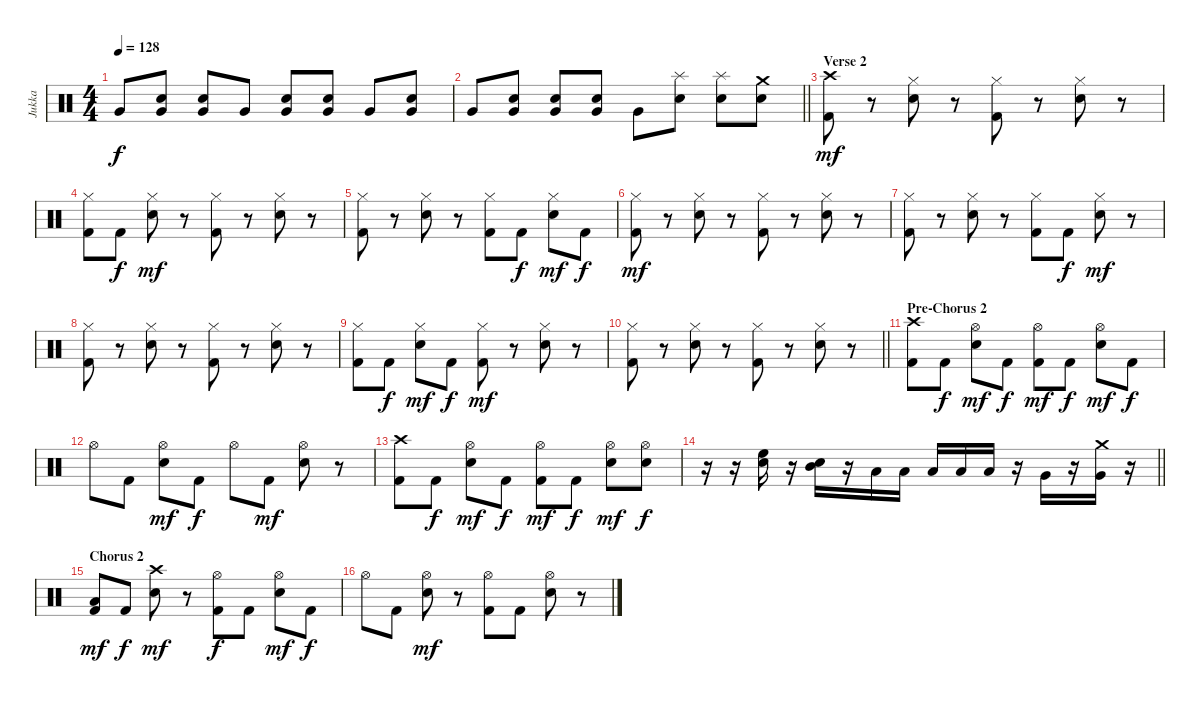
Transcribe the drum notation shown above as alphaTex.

\track ("Jukka" "Jukka") {instrument percussion}
\staff {score}
\articulation defaults
\ts (4 4)
\tempo 128
\clef neutral
\ks c "Very Low Tom (hit)".8{dy f}
("Electric Snare (hit)" "Very Low Tom (hit)").8 ("Electric Snare (hit)" "Very Low Tom (hit)").8 "Very Low Tom (hit)".8 ("Electric Snare (hit)" "Very Low Tom (hit)").8 ("Electric Snare (hit)" "Very Low Tom (hit)").8 "Very Low Tom (hit)".8 ("Electric Snare (hit)" "Very Low Tom (hit)").8 |
\barLineRight lightlight "Very Low Tom (hit)".8
("Electric Snare (hit)" "Very Low Tom (hit)").8 ("Electric Snare (hit)" "Very Low Tom (hit)").8 ("Electric Snare (hit)" "Very Low Tom (hit)").8 "Very Low Tom (hit)".8 ("Electric Snare (hit)" "Splash (hit)").8 ("Electric Snare (hit)" "Splash (hit)").8 ("Electric Snare (hit)" "Crash medium (hit)").8 |
\section ("" "Verse 2")
("Kick (hit) 2" "Crash high (hit)").8{dy mf} r.8 ("Electric Snare (hit)" "Hi-Hat (closed)").8 r.8 ("Kick (hit) 2" "Hi-Hat (closed)").8 r.8 ("Electric Snare (hit)" "Hi-Hat (closed)").8 r.8 |
("Kick (hit) 2" "Hi-Hat (closed)").8 "Kick (hit) 2".8{dy f} ("Electric Snare (hit)" "Hi-Hat (closed)").8{dy mf} r.8 ("Kick (hit) 2" "Hi-Hat (closed)").8 r.8 ("Electric Snare (hit)" "Hi-Hat (closed)").8 r.8 |
("Kick (hit) 2" "Hi-Hat (closed)").8 r.8 ("Electric Snare (hit)" "Hi-Hat (closed)").8 r.8 ("Kick (hit) 2" "Hi-Hat (closed)").8 "Kick (hit) 2".8{dy f} ("Electric Snare (hit)" "Hi-Hat (closed)").8{dy mf} "Kick (hit) 2".8{dy f} |
("Kick (hit) 2" "Hi-Hat (closed)").8{dy mf} r.8 ("Electric Snare (hit)" "Hi-Hat (closed)").8 r.8 ("Kick (hit) 2" "Hi-Hat (closed)").8 r.8 ("Electric Snare (hit)" "Hi-Hat (closed)").8 r.8 |
("Kick (hit) 2" "Hi-Hat (closed)").8 r.8 ("Electric Snare (hit)" "Hi-Hat (closed)").8 r.8 ("Kick (hit) 2" "Hi-Hat (closed)").8 "Kick (hit) 2".8{dy f} ("Electric Snare (hit)" "Hi-Hat (closed)").8{dy mf} r.8 |
("Kick (hit) 2" "Hi-Hat (closed)").8 r.8 ("Electric Snare (hit)" "Hi-Hat (closed)").8 r.8 ("Kick (hit) 2" "Hi-Hat (closed)").8 r.8 ("Electric Snare (hit)" "Hi-Hat (closed)").8 r.8 |
("Kick (hit) 2" "Hi-Hat (closed)").8 "Kick (hit) 2".8{dy f} ("Electric Snare (hit)" "Hi-Hat (closed)").8{dy mf} "Kick (hit) 2".8{dy f} ("Kick (hit) 2" "Hi-Hat (closed)").8{dy mf} r.8 ("Electric Snare (hit)" "Hi-Hat (closed)").8 r.8 |
\barLineRight lightlight
("Kick (hit) 2" "Hi-Hat (closed)").8 r.8 ("Electric Snare (hit)" "Hi-Hat (closed)").8 r.8 ("Kick (hit) 2" "Hi-Hat (closed)").8 r.8 ("Electric Snare (hit)" "Hi-Hat (closed)").8 r.8 |
\section ("" "Pre-Chorus 2")
("Kick (hit) 2" "Crash high (hit)").8 "Kick (hit) 2".8{dy f} ("Electric Snare (hit)" "Hi-Hat (open)").8{dy mf} "Kick (hit) 2".8{dy f} ("Kick (hit) 2" "Hi-Hat (open)").8{dy mf} "Kick (hit) 2".8{dy f} ("Electric Snare (hit)" "Hi-Hat (open)").8{dy mf} "Kick (hit) 2".8{dy f} |
"Hi-Hat (open)".8 "Kick (hit) 2".8 ("Electric Snare (hit)" "Hi-Hat (open)").8{dy mf} "Kick (hit) 2".8{dy f} "Hi-Hat (open)".8 "Kick (hit) 2".8{dy mf} ("Electric Snare (hit)" "Hi-Hat (open)").8 r.8 |
("Kick (hit) 2" "Crash high (hit)").8 "Kick (hit) 2".8{dy f} ("Electric Snare (hit)" "Hi-Hat (open)").8{dy mf} "Kick (hit) 2".8{dy f} ("Kick (hit) 2" "Hi-Hat (open)").8{dy mf} "Kick (hit) 2".8{dy f} ("Electric Snare (hit)" "Hi-Hat (open)").8{dy mf} ("Electric Snare (hit)" "Hi-Hat (open)").8{dy f} |
\barLineRight lightlight
r.16 r.16 ("Electric Snare (hit)" "High Floor Tom (hit)").16 r.16 ("Electric Snare (hit)" "Mid Tom (hit)").16 r.16 "Low Tom (hit)".16 "Low Tom (hit)".16 "Low Tom (hit)".16 "Low Tom (hit)".16 "Low Tom (hit)".16 r.16 "Very Low Tom (hit)".16 r.16 ("Crash medium (hit)" "Very Low Tom (hit)").16 r.16 |
\section ("" "Chorus 2")
("Kick (hit) 2" "Low Tom (hit)").8{dy mf} "Kick (hit) 2".8{dy f} ("Electric Snare (hit)" "Crash high (hit)").8{dy mf} r.8 ("Kick (hit) 2" "Hi-Hat (open)").8{dy f} "Kick (hit) 2".8 ("Electric Snare (hit)" "Hi-Hat (open)").8{dy mf} "Kick (hit) 2".8{dy f} |
"Hi-Hat (open)".8 "Kick (hit) 2".8 ("Electric Snare (hit)" "Hi-Hat (open)").8{dy mf} r.8 ("Kick (hit) 2" "Hi-Hat (open)").8 "Kick (hit) 2".8 ("Electric Snare (hit)" "Hi-Hat (open)").8 r.8
